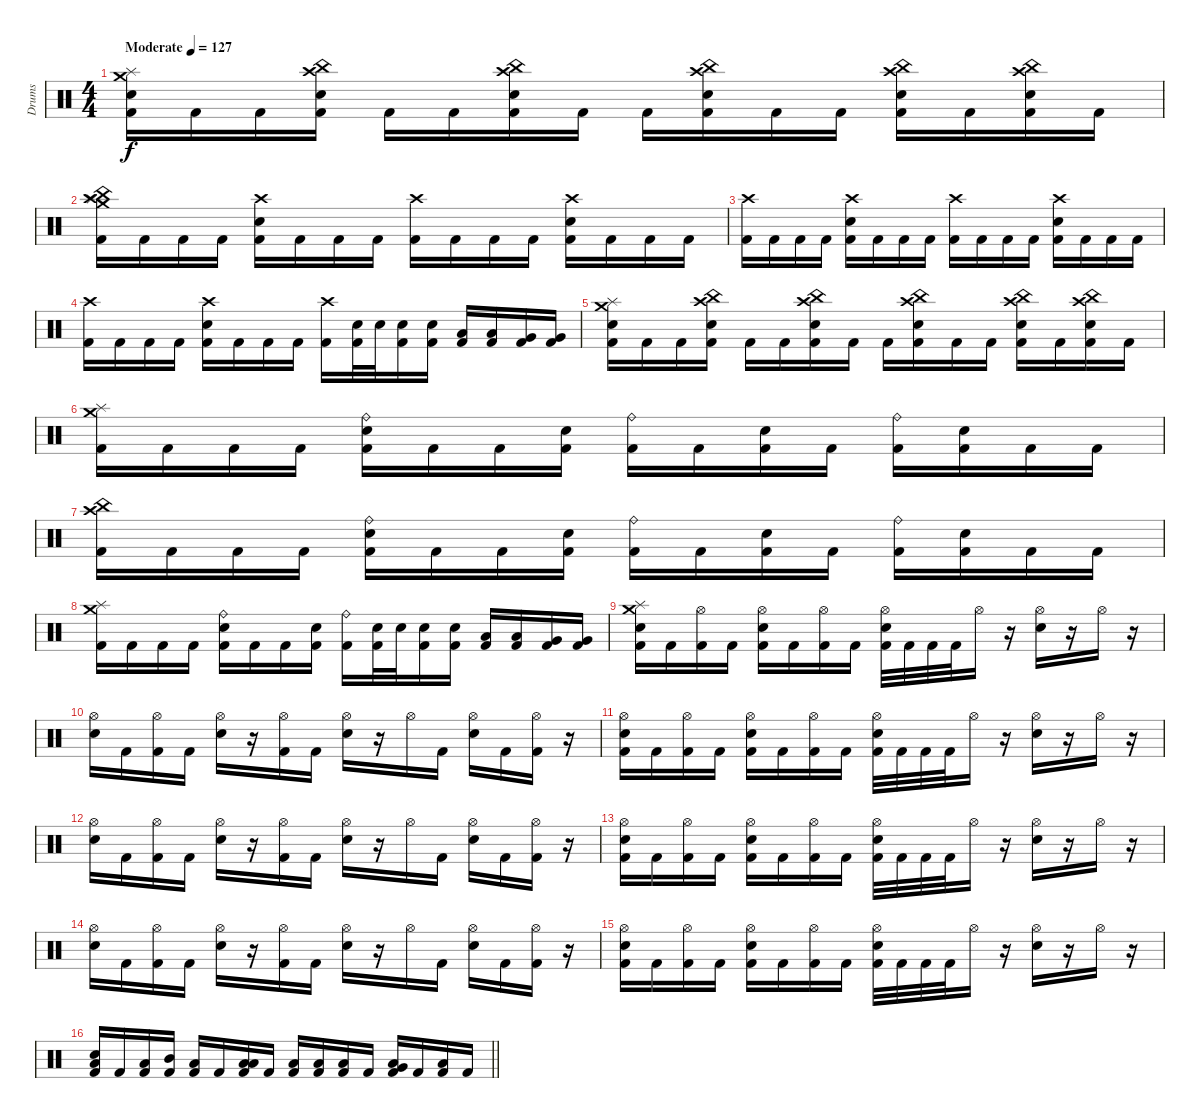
\track ("Drums" "Drums") {instrument percussion}
\staff {score}
\articulation defaults
\ts (4 4)
\tempo (127 "Moderate")
\clef neutral
\ks c
("Splash (hit)" "Crash medium (hit)" "Electric Snare (hit)" "Kick (hit) 2").16{dy f} "Kick (hit) 2".16 "Kick (hit) 2".16 ("Crash high (hit)" "China (hit)" "Electric Snare (hit)" "Kick (hit) 2").16 "Kick (hit) 2".16 "Kick (hit) 2".16 ("Crash high (hit)" "China (hit)" "Electric Snare (hit)" "Kick (hit) 2").16 "Kick (hit) 2".16 "Kick (hit) 2".16 ("Crash high (hit)" "China (hit)" "Electric Snare (hit)" "Kick (hit) 2").16 "Kick (hit) 2".16 "Kick (hit) 2".16 ("Crash high (hit)" "China (hit)" "Electric Snare (hit)" "Kick (hit) 2").16 "Kick (hit) 2".16 ("Crash high (hit)" "China (hit)" "Electric Snare (hit)" "Kick (hit) 2").16 "Kick (hit) 2".16 |
("Splash (hit)" "Crash medium (hit)" "China (hit)" "Crash high (hit)" "Kick (hit) 2").16 "Kick (hit) 2".16 "Kick (hit) 2".16 "Kick (hit) 2".16 ("Crash high (hit)" "Electric Snare (hit)" "Kick (hit) 2").16 "Kick (hit) 2".16 "Kick (hit) 2".16 "Kick (hit) 2".16 ("Crash high (hit)" "Kick (hit) 2").16 "Kick (hit) 2".16 "Kick (hit) 2".16 "Kick (hit) 2".16 ("Crash high (hit)" "Electric Snare (hit)" "Kick (hit) 2").16 "Kick (hit) 2".16 "Kick (hit) 2".16 "Kick (hit) 2".16 |
("Crash high (hit)" "Kick (hit) 2").16 "Kick (hit) 2".16 "Kick (hit) 2".16 "Kick (hit) 2".16 ("Crash high (hit)" "Electric Snare (hit)" "Kick (hit) 2").16 "Kick (hit) 2".16 "Kick (hit) 2".16 "Kick (hit) 2".16 ("Crash high (hit)" "Kick (hit) 2").16 "Kick (hit) 2".16 "Kick (hit) 2".16 "Kick (hit) 2".16 ("Crash high (hit)" "Electric Snare (hit)" "Kick (hit) 2").16 "Kick (hit) 2".16 "Kick (hit) 2".16 "Kick (hit) 2".16 |
("Crash high (hit)" "Kick (hit) 2").16 "Kick (hit) 2".16 "Kick (hit) 2".16 "Kick (hit) 2".16 ("Crash high (hit)" "Electric Snare (hit)" "Kick (hit) 2").16 "Kick (hit) 2".16 "Kick (hit) 2".16 "Kick (hit) 2".16 ("Crash high (hit)" "Kick (hit) 2").16 ("Electric Snare (hit)" "Kick (hit) 2").32 "Electric Snare (hit)".32 ("Electric Snare (hit)" "Kick (hit) 2").16 ("Electric Snare (hit)" "Kick (hit) 2").16 ("Low Tom (hit)" "Kick (hit) 2").16 ("Low Tom (hit)" "Kick (hit) 2").16 ("Very Low Tom (hit)" "Kick (hit) 2").16 ("Very Low Tom (hit)" "Kick (hit) 2").16 |
("Splash (hit)" "Crash medium (hit)" "Electric Snare (hit)" "Kick (hit) 2").16 "Kick (hit) 2".16 "Kick (hit) 2".16 ("Crash high (hit)" "China (hit)" "Electric Snare (hit)" "Kick (hit) 2").16 "Kick (hit) 2".16 "Kick (hit) 2".16 ("Crash high (hit)" "China (hit)" "Electric Snare (hit)" "Kick (hit) 2").16 "Kick (hit) 2".16 "Kick (hit) 2".16 ("Crash high (hit)" "China (hit)" "Electric Snare (hit)" "Kick (hit) 2").16 "Kick (hit) 2".16 "Kick (hit) 2".16 ("Crash high (hit)" "China (hit)" "Electric Snare (hit)" "Kick (hit) 2").16 "Kick (hit) 2".16 ("Crash high (hit)" "China (hit)" "Electric Snare (hit)" "Kick (hit) 2").16 "Kick (hit) 2".16 |
("Crash medium (hit)" "Splash (hit)" "Kick (hit) 2").16 "Kick (hit) 2".16 "Kick (hit) 2".16 "Kick (hit) 2".16 ("Ride (bell)" "Electric Snare (hit)" "Kick (hit) 2").16 "Kick (hit) 2".16 "Kick (hit) 2".16 ("Electric Snare (hit)" "Kick (hit) 2").16 ("Ride (bell)" "Kick (hit) 2").16 "Kick (hit) 2".16 ("Electric Snare (hit)" "Kick (hit) 2").16 "Kick (hit) 2".16 ("Ride (bell)" "Kick (hit) 2").16 ("Electric Snare (hit)" "Kick (hit) 2").16 "Kick (hit) 2".16 "Kick (hit) 2".16 |
("Crash high (hit)" "China (hit)" "Kick (hit) 2").16 "Kick (hit) 2".16 "Kick (hit) 2".16 "Kick (hit) 2".16 ("Ride (bell)" "Electric Snare (hit)" "Kick (hit) 2").16 "Kick (hit) 2".16 "Kick (hit) 2".16 ("Electric Snare (hit)" "Kick (hit) 2").16 ("Ride (bell)" "Kick (hit) 2").16 "Kick (hit) 2".16 ("Electric Snare (hit)" "Kick (hit) 2").16 "Kick (hit) 2".16 ("Ride (bell)" "Kick (hit) 2").16 ("Electric Snare (hit)" "Kick (hit) 2").16 "Kick (hit) 2".16 "Kick (hit) 2".16 |
("Crash medium (hit)" "Splash (hit)" "Kick (hit) 2").16 "Kick (hit) 2".16 "Kick (hit) 2".16 "Kick (hit) 2".16 ("Ride (bell)" "Electric Snare (hit)" "Kick (hit) 2").16 "Kick (hit) 2".16 "Kick (hit) 2".16 ("Electric Snare (hit)" "Kick (hit) 2").16 ("Ride (bell)" "Kick (hit) 2").16 ("Electric Snare (hit)" "Kick (hit) 2").32 "Electric Snare (hit)".32 ("Electric Snare (hit)" "Kick (hit) 2").16 ("Electric Snare (hit)" "Kick (hit) 2").16 ("Low Tom (hit)" "Kick (hit) 2").16 ("Low Tom (hit)" "Kick (hit) 2").16 ("Very Low Tom (hit)" "Kick (hit) 2").16 ("Very Low Tom (hit)" "Kick (hit) 2").16 |
("Crash medium (hit)" "Splash (hit)" "Electric Snare (hit)" "Kick (hit) 2").16 "Kick (hit) 2".16 ("Hi-Hat (open)" "Kick (hit) 2").16 "Kick (hit) 2".16 ("Hi-Hat (open)" "Electric Snare (hit)" "Kick (hit) 2").16 "Kick (hit) 2".16 ("Hi-Hat (open)" "Kick (hit) 2").16 "Kick (hit) 2".16 ("Hi-Hat (open)" "Electric Snare (hit)" "Kick (hit) 2").32 "Kick (hit) 2".32 "Kick (hit) 2".32 "Kick (hit) 2".32 "Hi-Hat (open)".16 r.16 ("Hi-Hat (open)" "Electric Snare (hit)").16 r.16 "Hi-Hat (open)".16 r.16 |
("Hi-Hat (open)" "Electric Snare (hit)").16 "Kick (hit) 2".16 ("Hi-Hat (open)" "Kick (hit) 2").16 "Kick (hit) 2".16 ("Hi-Hat (open)" "Electric Snare (hit)").16 r.16 ("Hi-Hat (open)" "Kick (hit) 2").16 "Kick (hit) 2".16 ("Hi-Hat (open)" "Electric Snare (hit)").16 r.16 "Hi-Hat (open)".16 "Kick (hit) 2".16 ("Hi-Hat (open)" "Electric Snare (hit)").16 "Kick (hit) 2".16 ("Hi-Hat (open)" "Kick (hit) 2").16 r.16 |
("Hi-Hat (open)" "Electric Snare (hit)" "Kick (hit) 2").16 "Kick (hit) 2".16 ("Hi-Hat (open)" "Kick (hit) 2").16 "Kick (hit) 2".16 ("Hi-Hat (open)" "Electric Snare (hit)" "Kick (hit) 2").16 "Kick (hit) 2".16 ("Hi-Hat (open)" "Kick (hit) 2").16 "Kick (hit) 2".16 ("Hi-Hat (open)" "Electric Snare (hit)" "Kick (hit) 2").32 "Kick (hit) 2".32 "Kick (hit) 2".32 "Kick (hit) 2".32 "Hi-Hat (open)".16 r.16 ("Hi-Hat (open)" "Electric Snare (hit)").16 r.16 "Hi-Hat (open)".16 r.16 |
("Hi-Hat (open)" "Electric Snare (hit)").16 "Kick (hit) 2".16 ("Hi-Hat (open)" "Kick (hit) 2").16 "Kick (hit) 2".16 ("Hi-Hat (open)" "Electric Snare (hit)").16 r.16 ("Hi-Hat (open)" "Kick (hit) 2").16 "Kick (hit) 2".16 ("Hi-Hat (open)" "Electric Snare (hit)").16 r.16 "Hi-Hat (open)".16 "Kick (hit) 2".16 ("Hi-Hat (open)" "Electric Snare (hit)").16 "Kick (hit) 2".16 ("Hi-Hat (open)" "Kick (hit) 2").16 r.16 |
("Hi-Hat (open)" "Electric Snare (hit)" "Kick (hit) 2").16 "Kick (hit) 2".16 ("Hi-Hat (open)" "Kick (hit) 2").16 "Kick (hit) 2".16 ("Hi-Hat (open)" "Electric Snare (hit)" "Kick (hit) 2").16 "Kick (hit) 2".16 ("Hi-Hat (open)" "Kick (hit) 2").16 "Kick (hit) 2".16 ("Hi-Hat (open)" "Electric Snare (hit)" "Kick (hit) 2").32 "Kick (hit) 2".32 "Kick (hit) 2".32 "Kick (hit) 2".32 "Hi-Hat (open)".16 r.16 ("Hi-Hat (open)" "Electric Snare (hit)").16 r.16 "Hi-Hat (open)".16 r.16 |
("Hi-Hat (open)" "Electric Snare (hit)").16 "Kick (hit) 2".16 ("Hi-Hat (open)" "Kick (hit) 2").16 "Kick (hit) 2".16 ("Hi-Hat (open)" "Electric Snare (hit)").16 r.16 ("Hi-Hat (open)" "Kick (hit) 2").16 "Kick (hit) 2".16 ("Hi-Hat (open)" "Electric Snare (hit)").16 r.16 "Hi-Hat (open)".16 "Kick (hit) 2".16 ("Hi-Hat (open)" "Electric Snare (hit)").16 "Kick (hit) 2".16 ("Hi-Hat (open)" "Kick (hit) 2").16 r.16 |
("Hi-Hat (open)" "Electric Snare (hit)" "Kick (hit) 2").16 "Kick (hit) 2".16 ("Hi-Hat (open)" "Kick (hit) 2").16 "Kick (hit) 2".16 ("Hi-Hat (open)" "Electric Snare (hit)" "Kick (hit) 2").16 "Kick (hit) 2".16 ("Hi-Hat (open)" "Kick (hit) 2").16 "Kick (hit) 2".16 ("Hi-Hat (open)" "Electric Snare (hit)" "Kick (hit) 2").32 "Kick (hit) 2".32 "Kick (hit) 2".32 "Kick (hit) 2".32 "Hi-Hat (open)".16 r.16 ("Hi-Hat (open)" "Electric Snare (hit)").16 r.16 "Hi-Hat (open)".16 r.16 |
\barLineRight lightlight
("Electric Snare (hit)" "Low Floor Tom (hit)" "Kick (hit) 2").16 "Kick (hit) 2".16 ("Low Floor Tom (hit)" "Kick (hit) 2").16 ("Mid Tom (hit)" "Kick (hit) 2").16 ("Low Floor Tom (hit)" "Kick (hit) 2").16 "Kick (hit) 2".16 ("Low Tom (hit)" "Low Floor Tom (hit)" "Kick (hit) 2").16 "Kick (hit) 2".16 ("Low Floor Tom (hit)" "Kick (hit) 2").16 ("Low Tom (hit)" "Kick (hit) 2").16 ("Low Floor Tom (hit)" "Kick (hit) 2").16 "Kick (hit) 2".16 ("Very Low Tom (hit)" "Low Floor Tom (hit)" "Kick (hit) 2").16 "Kick (hit) 2".16 ("Low Floor Tom (hit)" "Kick (hit) 2").16 "Kick (hit) 2".16
